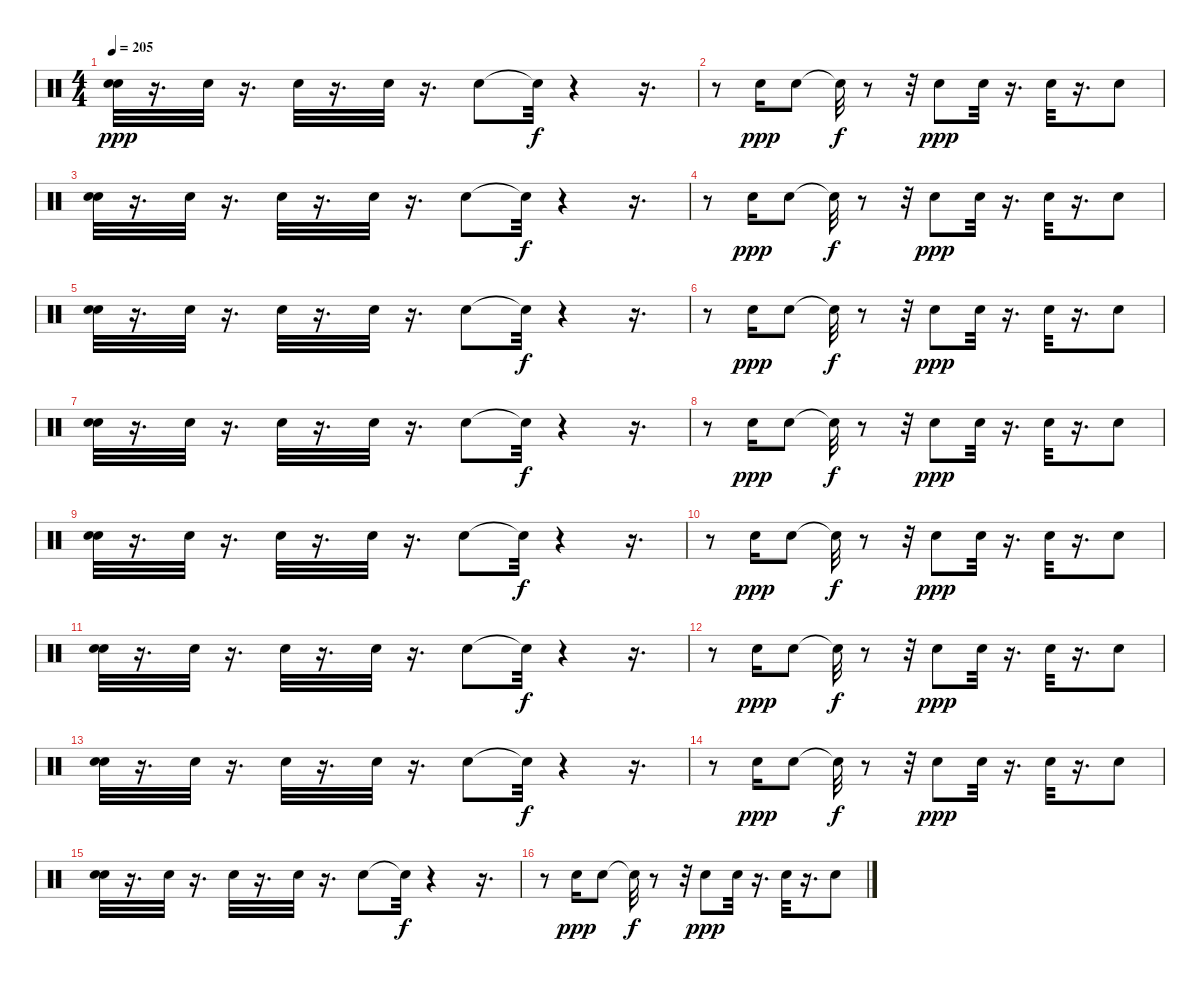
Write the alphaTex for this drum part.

\track "" {instrument percussion}
\staff {score}
\articulation defaults
\ts (4 4)
\tempo 205
\clef neutral
\ks c
("Electric Snare (hit)" "Electric Snare (hit)").32{dy ppp} r.16{d} "Electric Snare (hit)".32 r.16{d} "Electric Snare (hit)".32 r.16{d} "Electric Snare (hit)".32 r.16{d} "Electric Snare (hit)".8 "Snare (hit)"{t}.32{dy f} r.4 r.16{d} |
r.8 "Electric Snare (hit)".16{dy ppp} "Electric Snare (hit)".8 "Snare (hit)"{t}.32{dy f} r.8 r.32 "Electric Snare (hit)".8{dy ppp} "Electric Snare (hit)".32 r.16{d} "Electric Snare (hit)".32 r.16{d} "Electric Snare (hit)".8 |
("Electric Snare (hit)" "Electric Snare (hit)").32 r.16{d} "Electric Snare (hit)".32 r.16{d} "Electric Snare (hit)".32 r.16{d} "Electric Snare (hit)".32 r.16{d} "Electric Snare (hit)".8 "Snare (hit)"{t}.32{dy f} r.4 r.16{d} |
r.8 "Electric Snare (hit)".16{dy ppp} "Electric Snare (hit)".8 "Snare (hit)"{t}.32{dy f} r.8 r.32 "Electric Snare (hit)".8{dy ppp} "Electric Snare (hit)".32 r.16{d} "Electric Snare (hit)".32 r.16{d} "Electric Snare (hit)".8 |
("Electric Snare (hit)" "Electric Snare (hit)").32 r.16{d} "Electric Snare (hit)".32 r.16{d} "Electric Snare (hit)".32 r.16{d} "Electric Snare (hit)".32 r.16{d} "Electric Snare (hit)".8 "Snare (hit)"{t}.32{dy f} r.4 r.16{d} |
r.8 "Electric Snare (hit)".16{dy ppp} "Electric Snare (hit)".8 "Snare (hit)"{t}.32{dy f} r.8 r.32 "Electric Snare (hit)".8{dy ppp} "Electric Snare (hit)".32 r.16{d} "Electric Snare (hit)".32 r.16{d} "Electric Snare (hit)".8 |
("Electric Snare (hit)" "Electric Snare (hit)").32 r.16{d} "Electric Snare (hit)".32 r.16{d} "Electric Snare (hit)".32 r.16{d} "Electric Snare (hit)".32 r.16{d} "Electric Snare (hit)".8 "Snare (hit)"{t}.32{dy f} r.4 r.16{d} |
r.8 "Electric Snare (hit)".16{dy ppp} "Electric Snare (hit)".8 "Snare (hit)"{t}.32{dy f} r.8 r.32 "Electric Snare (hit)".8{dy ppp} "Electric Snare (hit)".32 r.16{d} "Electric Snare (hit)".32 r.16{d} "Electric Snare (hit)".8 |
("Electric Snare (hit)" "Electric Snare (hit)").32 r.16{d} "Electric Snare (hit)".32 r.16{d} "Electric Snare (hit)".32 r.16{d} "Electric Snare (hit)".32 r.16{d} "Electric Snare (hit)".8 "Snare (hit)"{t}.32{dy f} r.4 r.16{d} |
r.8 "Electric Snare (hit)".16{dy ppp} "Electric Snare (hit)".8 "Snare (hit)"{t}.32{dy f} r.8 r.32 "Electric Snare (hit)".8{dy ppp} "Electric Snare (hit)".32 r.16{d} "Electric Snare (hit)".32 r.16{d} "Electric Snare (hit)".8 |
("Electric Snare (hit)" "Electric Snare (hit)").32 r.16{d} "Electric Snare (hit)".32 r.16{d} "Electric Snare (hit)".32 r.16{d} "Electric Snare (hit)".32 r.16{d} "Electric Snare (hit)".8 "Snare (hit)"{t}.32{dy f} r.4 r.16{d} |
r.8 "Electric Snare (hit)".16{dy ppp} "Electric Snare (hit)".8 "Snare (hit)"{t}.32{dy f} r.8 r.32 "Electric Snare (hit)".8{dy ppp} "Electric Snare (hit)".32 r.16{d} "Electric Snare (hit)".32 r.16{d} "Electric Snare (hit)".8 |
("Electric Snare (hit)" "Electric Snare (hit)").32 r.16{d} "Electric Snare (hit)".32 r.16{d} "Electric Snare (hit)".32 r.16{d} "Electric Snare (hit)".32 r.16{d} "Electric Snare (hit)".8 "Snare (hit)"{t}.32{dy f} r.4 r.16{d} |
r.8 "Electric Snare (hit)".16{dy ppp} "Electric Snare (hit)".8 "Snare (hit)"{t}.32{dy f} r.8 r.32 "Electric Snare (hit)".8{dy ppp} "Electric Snare (hit)".32 r.16{d} "Electric Snare (hit)".32 r.16{d} "Electric Snare (hit)".8 |
("Electric Snare (hit)" "Electric Snare (hit)").32 r.16{d} "Electric Snare (hit)".32 r.16{d} "Electric Snare (hit)".32 r.16{d} "Electric Snare (hit)".32 r.16{d} "Electric Snare (hit)".8 "Snare (hit)"{t}.32{dy f} r.4 r.16{d} |
r.8 "Electric Snare (hit)".16{dy ppp} "Electric Snare (hit)".8 "Snare (hit)"{t}.32{dy f} r.8 r.32 "Electric Snare (hit)".8{dy ppp} "Electric Snare (hit)".32 r.16{d} "Electric Snare (hit)".32 r.16{d} "Electric Snare (hit)".8
